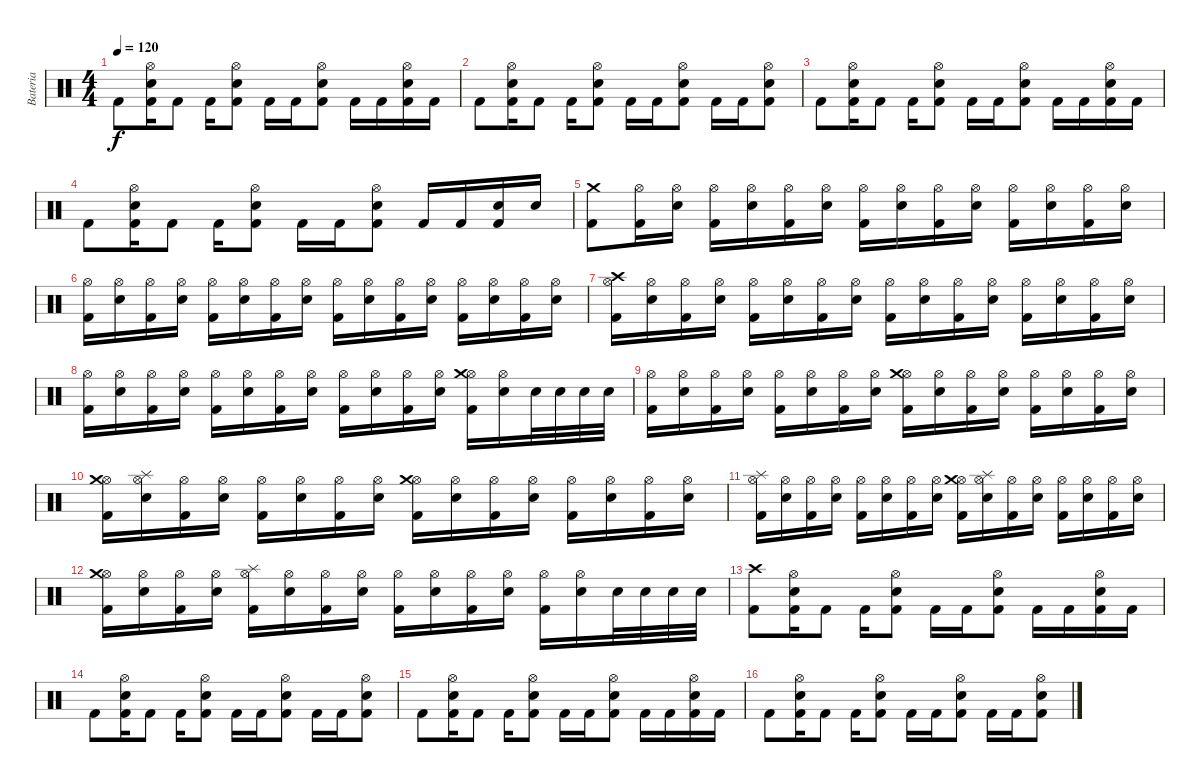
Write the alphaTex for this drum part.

\track ("Bateria" "Bateria") {instrument percussion}
\staff {score}
\articulation defaults
\ts (4 4)
\tempo 120
\clef neutral
\ks c "Kick (hit) 2".8{dy f}
("Kick (hit) 2" "Electric Snare (hit)" "Hi-Hat (open)").16 "Kick (hit) 2".8 "Kick (hit) 2".16 ("Kick (hit) 2" "Electric Snare (hit)" "Hi-Hat (open)").8 "Kick (hit) 2".16 "Kick (hit) 2".16 ("Kick (hit) 2" "Electric Snare (hit)" "Hi-Hat (open)").8 "Kick (hit) 2".16 "Kick (hit) 2".16 ("Kick (hit) 2" "Electric Snare (hit)" "Hi-Hat (open)").16 "Kick (hit) 2".16 |
"Kick (hit) 2".8 ("Kick (hit) 2" "Electric Snare (hit)" "Hi-Hat (open)").16 "Kick (hit) 2".8 "Kick (hit) 2".16 ("Kick (hit) 2" "Electric Snare (hit)" "Hi-Hat (open)").8 "Kick (hit) 2".16 "Kick (hit) 2".16 ("Kick (hit) 2" "Electric Snare (hit)" "Hi-Hat (open)").8 "Kick (hit) 2".16 "Kick (hit) 2".16 ("Kick (hit) 2" "Electric Snare (hit)" "Hi-Hat (open)").8 |
"Kick (hit) 2".8 ("Kick (hit) 2" "Electric Snare (hit)" "Hi-Hat (open)").16 "Kick (hit) 2".8 "Kick (hit) 2".16 ("Kick (hit) 2" "Electric Snare (hit)" "Hi-Hat (open)").8 "Kick (hit) 2".16 "Kick (hit) 2".16 ("Kick (hit) 2" "Electric Snare (hit)" "Hi-Hat (open)").8 "Kick (hit) 2".16 "Kick (hit) 2".16 ("Kick (hit) 2" "Electric Snare (hit)" "Hi-Hat (open)").16 "Kick (hit) 2".16 |
"Kick (hit) 2".8 ("Kick (hit) 2" "Electric Snare (hit)" "Hi-Hat (open)").16 "Kick (hit) 2".8 "Kick (hit) 2".16 ("Kick (hit) 2" "Electric Snare (hit)" "Hi-Hat (open)").8 "Kick (hit) 2".16 "Kick (hit) 2".16 ("Kick (hit) 2" "Electric Snare (hit)" "Hi-Hat (open)").8 "Kick (hit) 2".16 "Kick (hit) 2".16 ("Kick (hit) 2" "Electric Snare (hit)").16 "Electric Snare (hit)".16 |
("Kick (hit) 2" "Crash medium (hit)").8 ("Kick (hit) 2" "Hi-Hat (open)").16 ("Electric Snare (hit)" "Hi-Hat (open)").16 ("Kick (hit) 2" "Hi-Hat (open)").16 ("Electric Snare (hit)" "Hi-Hat (open)").16 ("Kick (hit) 2" "Hi-Hat (open)").16 ("Electric Snare (hit)" "Hi-Hat (open)").16 ("Kick (hit) 2" "Hi-Hat (open)").16 ("Electric Snare (hit)" "Hi-Hat (open)").16 ("Kick (hit) 2" "Hi-Hat (open)").16 ("Electric Snare (hit)" "Hi-Hat (open)").16 ("Kick (hit) 2" "Hi-Hat (open)").16 ("Electric Snare (hit)" "Hi-Hat (open)").16 ("Kick (hit) 2" "Hi-Hat (open)").16 ("Electric Snare (hit)" "Hi-Hat (open)").16 |
("Kick (hit) 2" "Hi-Hat (open)").16 ("Electric Snare (hit)" "Hi-Hat (open)").16 ("Kick (hit) 2" "Hi-Hat (open)").16 ("Electric Snare (hit)" "Hi-Hat (open)").16 ("Kick (hit) 2" "Hi-Hat (open)").16 ("Electric Snare (hit)" "Hi-Hat (open)").16 ("Kick (hit) 2" "Hi-Hat (open)").16 ("Electric Snare (hit)" "Hi-Hat (open)").16 ("Kick (hit) 2" "Hi-Hat (open)").16 ("Electric Snare (hit)" "Hi-Hat (open)").16 ("Kick (hit) 2" "Hi-Hat (open)").16 ("Electric Snare (hit)" "Hi-Hat (open)").16 ("Kick (hit) 2" "Hi-Hat (open)").16 ("Electric Snare (hit)" "Hi-Hat (open)").16 ("Kick (hit) 2" "Hi-Hat (open)").16 ("Electric Snare (hit)" "Hi-Hat (open)").16 |
("Kick (hit) 2" "Hi-Hat (open)" "Crash high (hit)").16 ("Electric Snare (hit)" "Hi-Hat (open)").16 ("Kick (hit) 2" "Hi-Hat (open)").16 ("Electric Snare (hit)" "Hi-Hat (open)").16 ("Kick (hit) 2" "Hi-Hat (open)").16 ("Electric Snare (hit)" "Hi-Hat (open)").16 ("Kick (hit) 2" "Hi-Hat (open)").16 ("Electric Snare (hit)" "Hi-Hat (open)").16 ("Kick (hit) 2" "Hi-Hat (open)").16 ("Electric Snare (hit)" "Hi-Hat (open)").16 ("Kick (hit) 2" "Hi-Hat (open)").16 ("Electric Snare (hit)" "Hi-Hat (open)").16 ("Kick (hit) 2" "Hi-Hat (open)").16 ("Electric Snare (hit)" "Hi-Hat (open)").16 ("Kick (hit) 2" "Hi-Hat (open)").16 ("Electric Snare (hit)" "Hi-Hat (open)").16 |
("Kick (hit) 2" "Hi-Hat (open)").16 ("Electric Snare (hit)" "Hi-Hat (open)").16 ("Kick (hit) 2" "Hi-Hat (open)").16 ("Electric Snare (hit)" "Hi-Hat (open)").16 ("Kick (hit) 2" "Hi-Hat (open)").16 ("Electric Snare (hit)" "Hi-Hat (open)").16 ("Kick (hit) 2" "Hi-Hat (open)").16 ("Electric Snare (hit)" "Hi-Hat (open)").16 ("Kick (hit) 2" "Hi-Hat (open)").16 ("Electric Snare (hit)" "Hi-Hat (open)").16 ("Kick (hit) 2" "Hi-Hat (open)").16 ("Electric Snare (hit)" "Hi-Hat (open)").16 ("Kick (hit) 2" "Hi-Hat (open)" "Crash medium (hit)").16 ("Electric Snare (hit)" "Hi-Hat (open)").16 "Electric Snare (hit)".32 "Electric Snare (hit)".32 "Electric Snare (hit)".32 "Electric Snare (hit)".32 |
("Kick (hit) 2" "Hi-Hat (open)").16 ("Electric Snare (hit)" "Hi-Hat (open)").16 ("Kick (hit) 2" "Hi-Hat (open)").16 ("Electric Snare (hit)" "Hi-Hat (open)").16 ("Kick (hit) 2" "Hi-Hat (open)").16 ("Electric Snare (hit)" "Hi-Hat (open)").16 ("Kick (hit) 2" "Hi-Hat (open)").16 ("Electric Snare (hit)" "Hi-Hat (open)").16 ("Kick (hit) 2" "Hi-Hat (open)" "Crash medium (hit)").16 ("Electric Snare (hit)" "Hi-Hat (open)").16 ("Kick (hit) 2" "Hi-Hat (open)").16 ("Electric Snare (hit)" "Hi-Hat (open)").16 ("Kick (hit) 2" "Hi-Hat (open)").16 ("Electric Snare (hit)" "Hi-Hat (open)").16 ("Kick (hit) 2" "Hi-Hat (open)").16 ("Electric Snare (hit)" "Hi-Hat (open)").16 |
("Kick (hit) 2" "Hi-Hat (open)" "Crash medium (hit)").16 ("Electric Snare (hit)" "Hi-Hat (open)" "Splash (hit)").16 ("Kick (hit) 2" "Hi-Hat (open)").16 ("Electric Snare (hit)" "Hi-Hat (open)").16 ("Kick (hit) 2" "Hi-Hat (open)").16 ("Electric Snare (hit)" "Hi-Hat (open)").16 ("Kick (hit) 2" "Hi-Hat (open)").16 ("Electric Snare (hit)" "Hi-Hat (open)").16 ("Kick (hit) 2" "Hi-Hat (open)" "Crash medium (hit)").16 ("Electric Snare (hit)" "Hi-Hat (open)").16 ("Kick (hit) 2" "Hi-Hat (open)").16 ("Electric Snare (hit)" "Hi-Hat (open)").16 ("Kick (hit) 2" "Hi-Hat (open)").16 ("Electric Snare (hit)" "Hi-Hat (open)").16 ("Kick (hit) 2" "Hi-Hat (open)").16 ("Electric Snare (hit)" "Hi-Hat (open)").16 |
("Kick (hit) 2" "Hi-Hat (open)" "Splash (hit)").16 ("Electric Snare (hit)" "Hi-Hat (open)").16 ("Kick (hit) 2" "Hi-Hat (open)").16 ("Electric Snare (hit)" "Hi-Hat (open)").16 ("Kick (hit) 2" "Hi-Hat (open)").16 ("Electric Snare (hit)" "Hi-Hat (open)").16 ("Kick (hit) 2" "Hi-Hat (open)").16 ("Electric Snare (hit)" "Hi-Hat (open)").16 ("Kick (hit) 2" "Hi-Hat (open)" "Crash medium (hit)").16 ("Electric Snare (hit)" "Hi-Hat (open)" "Splash (hit)").16 ("Kick (hit) 2" "Hi-Hat (open)").16 ("Electric Snare (hit)" "Hi-Hat (open)").16 ("Kick (hit) 2" "Hi-Hat (open)").16 ("Electric Snare (hit)" "Hi-Hat (open)").16 ("Kick (hit) 2" "Hi-Hat (open)").16 ("Electric Snare (hit)" "Hi-Hat (open)").16 |
("Kick (hit) 2" "Hi-Hat (open)" "Crash medium (hit)").16 ("Electric Snare (hit)" "Hi-Hat (open)").16 ("Kick (hit) 2" "Hi-Hat (open)").16 ("Electric Snare (hit)" "Hi-Hat (open)").16 ("Kick (hit) 2" "Hi-Hat (open)" "Splash (hit)").16 ("Electric Snare (hit)" "Hi-Hat (open)").16 ("Kick (hit) 2" "Hi-Hat (open)").16 ("Electric Snare (hit)" "Hi-Hat (open)").16 ("Kick (hit) 2" "Hi-Hat (open)").16 ("Electric Snare (hit)" "Hi-Hat (open)").16 ("Kick (hit) 2" "Hi-Hat (open)").16 ("Electric Snare (hit)" "Hi-Hat (open)").16 ("Kick (hit) 2" "Hi-Hat (open)").16 ("Electric Snare (hit)" "Hi-Hat (open)").16 "Electric Snare (hit)".32 "Electric Snare (hit)".32 "Electric Snare (hit)".32 "Electric Snare (hit)".32 |
("Kick (hit) 2" "Crash high (hit)").8 ("Kick (hit) 2" "Electric Snare (hit)" "Hi-Hat (open)").16 "Kick (hit) 2".8 "Kick (hit) 2".16 ("Kick (hit) 2" "Electric Snare (hit)" "Hi-Hat (open)").8 "Kick (hit) 2".16 "Kick (hit) 2".16 ("Kick (hit) 2" "Electric Snare (hit)" "Hi-Hat (open)").8 "Kick (hit) 2".16 "Kick (hit) 2".16 ("Kick (hit) 2" "Electric Snare (hit)" "Hi-Hat (open)").16 "Kick (hit) 2".16 |
"Kick (hit) 2".8 ("Kick (hit) 2" "Electric Snare (hit)" "Hi-Hat (open)").16 "Kick (hit) 2".8 "Kick (hit) 2".16 ("Kick (hit) 2" "Electric Snare (hit)" "Hi-Hat (open)").8 "Kick (hit) 2".16 "Kick (hit) 2".16 ("Kick (hit) 2" "Electric Snare (hit)" "Hi-Hat (open)").8 "Kick (hit) 2".16 "Kick (hit) 2".16 ("Kick (hit) 2" "Electric Snare (hit)" "Hi-Hat (open)").8 |
"Kick (hit) 2".8 ("Kick (hit) 2" "Electric Snare (hit)" "Hi-Hat (open)").16 "Kick (hit) 2".8 "Kick (hit) 2".16 ("Kick (hit) 2" "Electric Snare (hit)" "Hi-Hat (open)").8 "Kick (hit) 2".16 "Kick (hit) 2".16 ("Kick (hit) 2" "Electric Snare (hit)" "Hi-Hat (open)").8 "Kick (hit) 2".16 "Kick (hit) 2".16 ("Kick (hit) 2" "Electric Snare (hit)" "Hi-Hat (open)").16 "Kick (hit) 2".16 |
"Kick (hit) 2".8 ("Kick (hit) 2" "Electric Snare (hit)" "Hi-Hat (open)").16 "Kick (hit) 2".8 "Kick (hit) 2".16 ("Kick (hit) 2" "Electric Snare (hit)" "Hi-Hat (open)").8 "Kick (hit) 2".16 "Kick (hit) 2".16 ("Kick (hit) 2" "Electric Snare (hit)" "Hi-Hat (open)").8 "Kick (hit) 2".16 "Kick (hit) 2".16 ("Kick (hit) 2" "Electric Snare (hit)" "Hi-Hat (open)").8
